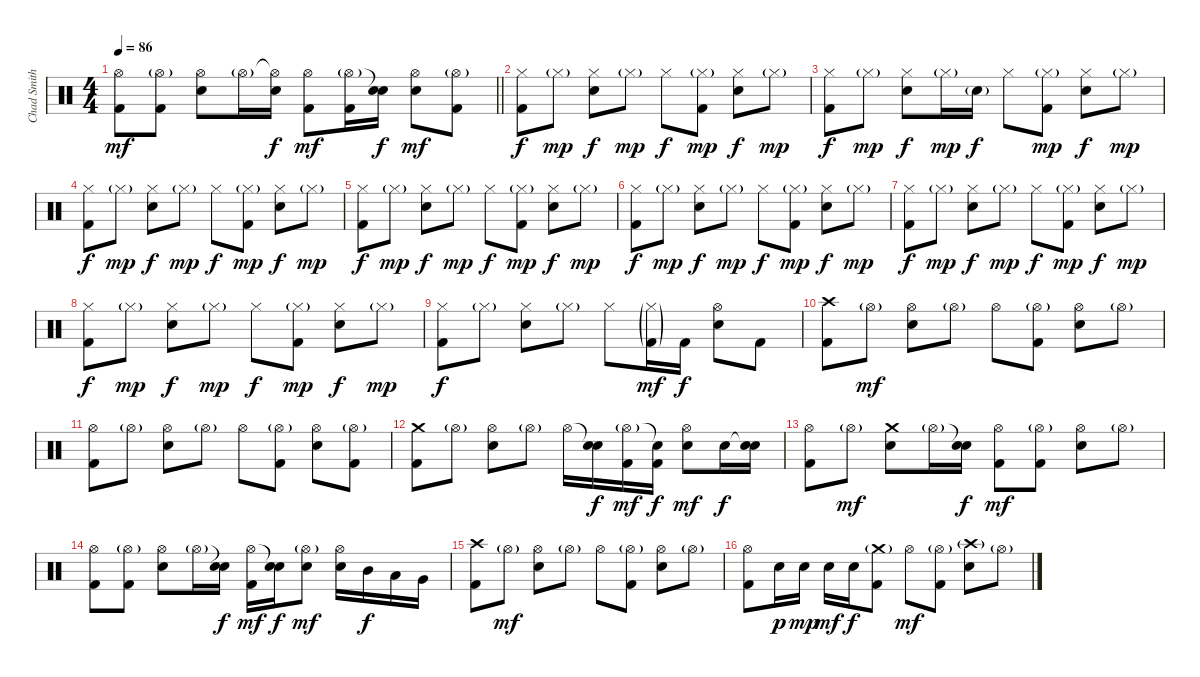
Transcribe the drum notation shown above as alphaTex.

\track ("Chad Smith" "Chad Smith") {instrument percussion}
\staff {score}
\articulation defaults
\ts (4 4)
\tempo 86
\clef neutral
\barLineRight lightlight
\ks c
("Hi-Hat (open)" "Kick (hit) 2").8{dy mf} ("Hi-Hat (open)"{g} "Kick (hit) 2").8 ("Hi-Hat (open)" "Electric Snare (hit)").8 "Hi-Hat (open)"{g}.16 ("Hi-Hat (open)"{t} "Electric Snare (hit)").16{dy f} ("Hi-Hat (open)" "Kick (hit) 2").8{dy mf} ("Hi-Hat (open)"{g} "Kick (hit) 2").16 ("Snare (hit)"{t} "Electric Snare (hit)").16{dy f} ("Hi-Hat (open)" "Electric Snare (hit)").8{dy mf} ("Hi-Hat (open)"{g} "Kick (hit) 2").8 |
("Hi-Hat (closed)" "Kick (hit) 2").8{dy f} "Hi-Hat (closed)"{g}.8{dy mp} ("Hi-Hat (closed)" "Electric Snare (hit)").8{dy f} "Hi-Hat (closed)"{g}.8{dy mp} "Hi-Hat (closed)".8{dy f} ("Hi-Hat (closed)"{g} "Kick (hit) 2").8{dy mp} ("Hi-Hat (closed)" "Electric Snare (hit)").8{dy f} "Hi-Hat (closed)"{g}.8{dy mp} |
("Hi-Hat (closed)" "Kick (hit) 2").8{dy f} "Hi-Hat (closed)"{g}.8{dy mp} ("Hi-Hat (closed)" "Electric Snare (hit)").8{dy f} "Hi-Hat (closed)"{g}.16{dy mp} "Electric Snare (hit)"{g}.16{dy f} "Hi-Hat (closed)".8 ("Hi-Hat (closed)"{g} "Kick (hit) 2").8{dy mp} ("Hi-Hat (closed)" "Electric Snare (hit)").8{dy f} "Hi-Hat (closed)"{g}.8{dy mp} |
("Hi-Hat (closed)" "Kick (hit) 2").8{dy f} "Hi-Hat (closed)"{g}.8{dy mp} ("Hi-Hat (closed)" "Electric Snare (hit)").8{dy f} "Hi-Hat (closed)"{g}.8{dy mp} "Hi-Hat (closed)".8{dy f} ("Hi-Hat (closed)"{g} "Kick (hit) 2").8{dy mp} ("Hi-Hat (closed)" "Electric Snare (hit)").8{dy f} "Hi-Hat (closed)"{g}.8{dy mp} |
("Hi-Hat (closed)" "Kick (hit) 2").8{dy f} "Hi-Hat (closed)"{g}.8{dy mp} ("Hi-Hat (closed)" "Electric Snare (hit)").8{dy f} "Hi-Hat (closed)"{g}.8{dy mp} "Hi-Hat (closed)".8{dy f} ("Hi-Hat (closed)"{g} "Kick (hit) 2").8{dy mp} ("Hi-Hat (closed)" "Electric Snare (hit)").8{dy f} "Hi-Hat (closed)"{g}.8{dy mp} |
("Hi-Hat (closed)" "Kick (hit) 2").8{dy f} "Hi-Hat (closed)"{g}.8{dy mp} ("Hi-Hat (closed)" "Electric Snare (hit)").8{dy f} "Hi-Hat (closed)"{g}.8{dy mp} "Hi-Hat (closed)".8{dy f} ("Hi-Hat (closed)"{g} "Kick (hit) 2").8{dy mp} ("Hi-Hat (closed)" "Electric Snare (hit)").8{dy f} "Hi-Hat (closed)"{g}.8{dy mp} |
("Hi-Hat (closed)" "Kick (hit) 2").8{dy f} "Hi-Hat (closed)"{g}.8{dy mp} ("Hi-Hat (closed)" "Electric Snare (hit)").8{dy f} "Hi-Hat (closed)"{g}.8{dy mp} "Hi-Hat (closed)".8{dy f} ("Hi-Hat (closed)"{g} "Kick (hit) 2").8{dy mp} ("Hi-Hat (closed)" "Electric Snare (hit)").8{dy f} "Hi-Hat (closed)"{g}.8{dy mp} |
("Hi-Hat (closed)" "Kick (hit) 2").8{dy f} "Hi-Hat (closed)"{g}.8{dy mp} ("Hi-Hat (closed)" "Electric Snare (hit)").8{dy f} "Hi-Hat (closed)"{g}.8{dy mp} "Hi-Hat (closed)".8{dy f} ("Hi-Hat (closed)"{g} "Kick (hit) 2").8{dy mp} ("Hi-Hat (closed)" "Electric Snare (hit)").8{dy f} "Hi-Hat (closed)"{g}.8{dy mp} |
("Hi-Hat (closed)" "Kick (hit) 2").8{dy f} "Hi-Hat (closed)"{g}.8 ("Hi-Hat (closed)" "Electric Snare (hit)").8 "Hi-Hat (closed)"{g}.8 "Hi-Hat (closed)".8 ("Hi-Hat (closed)"{g} "Kick (hit) 2"{g}).16{dy mf} "Kick (hit) 2".16{dy f} ("Hi-Hat (open)" "Electric Snare (hit)").8 "Kick (hit) 2".8 |
("Crash high (hit)" "Kick (hit) 2").8 "Hi-Hat (open)"{g}.8{dy mf} ("Hi-Hat (open)" "Electric Snare (hit)").8 "Hi-Hat (open)"{g}.8 "Hi-Hat (open)".8 ("Hi-Hat (open)"{g} "Kick (hit) 2").8 ("Hi-Hat (open)" "Electric Snare (hit)").8 "Hi-Hat (open)"{g}.8 |
("Hi-Hat (open)" "Kick (hit) 2").8 "Hi-Hat (open)"{g}.8 ("Hi-Hat (open)" "Electric Snare (hit)").8 "Hi-Hat (open)"{g}.8 "Hi-Hat (open)".8 ("Hi-Hat (open)"{g} "Kick (hit) 2").8 ("Hi-Hat (open)" "Electric Snare (hit)").8 ("Hi-Hat (open)"{g} "Kick (hit) 2").8 |
("Crash medium (hit)" "Kick (hit) 2").8 "Hi-Hat (open)"{g}.8 ("Hi-Hat (open)" "Electric Snare (hit)").8 "Hi-Hat (open)"{g}.8 "Hi-Hat (open)".16 ("Snare (hit)"{t} "Electric Snare (hit)").16{dy f} ("Hi-Hat (open)"{g} "Kick (hit) 2").16{dy mf} ("Snare (hit)"{t} "Kick (hit) 2").16{dy f} ("Hi-Hat (open)" "Electric Snare (hit)").8{dy mf} "Electric Snare (hit)".16{dy f} ("Snare (hit)"{t} "Electric Snare (hit)").16 |
("Hi-Hat (open)" "Kick (hit) 2").8 "Hi-Hat (open)"{g}.8{dy mf} ("Crash medium (hit)" "Electric Snare (hit)").8 "Hi-Hat (open)"{g}.16 ("Snare (hit)"{t} "Electric Snare (hit)").16{dy f} ("Hi-Hat (open)" "Kick (hit) 2").8{dy mf} ("Hi-Hat (open)"{g} "Kick (hit) 2").8 ("Hi-Hat (open)" "Electric Snare (hit)").8 "Hi-Hat (open)"{g}.8 |
("Hi-Hat (open)" "Kick (hit) 2").8 ("Hi-Hat (open)"{g} "Kick (hit) 2").8 ("Hi-Hat (open)" "Electric Snare (hit)").8 "Hi-Hat (open)"{g}.16 ("Snare (hit)"{t} "Electric Snare (hit)").16{dy f} ("Hi-Hat (open)" "Kick (hit) 2").16{dy mf} ("Snare (hit)"{t} "Electric Snare (hit)").16{dy f} ("Hi-Hat (open)"{g} "Electric Snare (hit)").8{dy mf} ("Hi-Hat (open)" "Electric Snare (hit)").16 "Mid Tom (hit)".16{dy f} "Low Tom (hit)".16 "Very Low Tom (hit)".16 |
("Crash high (hit)" "Kick (hit) 2").8 "Hi-Hat (open)"{g}.8{dy mf} ("Hi-Hat (open)" "Electric Snare (hit)").8 "Hi-Hat (open)"{g}.8 "Hi-Hat (open)".8 ("Hi-Hat (open)"{g} "Kick (hit) 2").8 ("Hi-Hat (open)" "Electric Snare (hit)").8 "Hi-Hat (open)"{g}.8 |
("Hi-Hat (open)" "Kick (hit) 2").8 "Electric Snare (hit)".16{dy p} "Electric Snare (hit)".16{dy mp} "Electric Snare (hit)".16{dy mf} "Electric Snare (hit)".16{dy f} ("Crash medium (hit)"{g} "Kick (hit) 2").8 "Hi-Hat (open)".8{dy mf} ("Hi-Hat (open)"{g} "Kick (hit) 2").8 ("Crash high (hit)"{g} "Electric Snare (hit)").8 "Hi-Hat (open)"{g}.8
